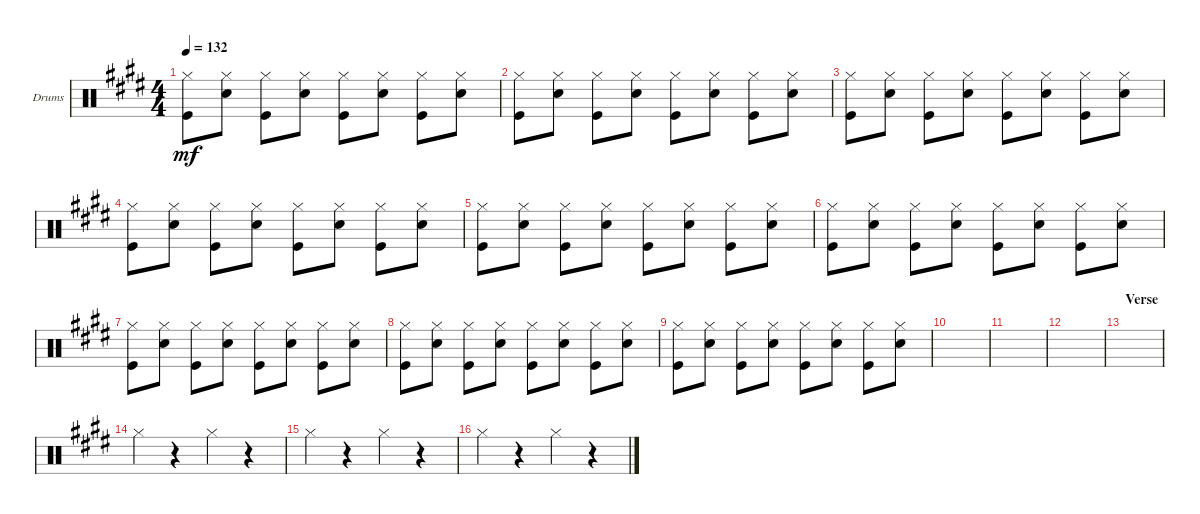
\defaultSystemsLayout 4
\bracketExtendMode groupsimilarinstruments
\firstSystemTrackNameOrientation horizontal
\otherSystemsTrackNameOrientation horizontal
\track ("Drumkit" "Drums") {instrument percussion}
\staff {score}
\articulation defaults
\ts (4 4)
\tempo 132
\clef neutral
\scale
0.333333
\ks c#minor
("Kick (hit)" "Hi-Hat (closed)").8{dy mf} ("Snare (hit) 2" "Hi-Hat (closed)").8 ("Kick (hit)" "Hi-Hat (closed)").8 ("Snare (hit) 2" "Hi-Hat (closed)").8 ("Kick (hit)" "Hi-Hat (closed)").8 ("Snare (hit) 2" "Hi-Hat (closed)").8 ("Kick (hit)" "Hi-Hat (closed)").8 ("Snare (hit) 2" "Hi-Hat (closed)").8 |
("Kick (hit)" "Hi-Hat (closed)").8 ("Snare (hit) 2" "Hi-Hat (closed)").8 ("Kick (hit)" "Hi-Hat (closed)").8 ("Snare (hit) 2" "Hi-Hat (closed)").8 ("Kick (hit)" "Hi-Hat (closed)").8 ("Snare (hit) 2" "Hi-Hat (closed)").8 ("Kick (hit)" "Hi-Hat (closed)").8 ("Snare (hit) 2" "Hi-Hat (closed)").8 |
("Kick (hit)" "Hi-Hat (closed)").8 ("Snare (hit) 2" "Hi-Hat (closed)").8 ("Kick (hit)" "Hi-Hat (closed)").8 ("Snare (hit) 2" "Hi-Hat (closed)").8 ("Kick (hit)" "Hi-Hat (closed)").8 ("Snare (hit) 2" "Hi-Hat (closed)").8 ("Kick (hit)" "Hi-Hat (closed)").8 ("Snare (hit) 2" "Hi-Hat (closed)").8 |
("Kick (hit)" "Hi-Hat (closed)").8 ("Snare (hit) 2" "Hi-Hat (closed)").8 ("Kick (hit)" "Hi-Hat (closed)").8 ("Snare (hit) 2" "Hi-Hat (closed)").8 ("Kick (hit)" "Hi-Hat (closed)").8 ("Snare (hit) 2" "Hi-Hat (closed)").8 ("Kick (hit)" "Hi-Hat (closed)").8 ("Snare (hit) 2" "Hi-Hat (closed)").8 |
("Kick (hit)" "Hi-Hat (closed)").8 ("Snare (hit) 2" "Hi-Hat (closed)").8 ("Kick (hit)" "Hi-Hat (closed)").8 ("Snare (hit) 2" "Hi-Hat (closed)").8 ("Kick (hit)" "Hi-Hat (closed)").8 ("Snare (hit) 2" "Hi-Hat (closed)").8 ("Kick (hit)" "Hi-Hat (closed)").8 ("Snare (hit) 2" "Hi-Hat (closed)").8 |
("Kick (hit)" "Hi-Hat (closed)").8 ("Snare (hit) 2" "Hi-Hat (closed)").8 ("Kick (hit)" "Hi-Hat (closed)").8 ("Snare (hit) 2" "Hi-Hat (closed)").8 ("Kick (hit)" "Hi-Hat (closed)").8 ("Snare (hit) 2" "Hi-Hat (closed)").8 ("Kick (hit)" "Hi-Hat (closed)").8 ("Snare (hit) 2" "Hi-Hat (closed)").8 |
("Kick (hit)" "Hi-Hat (closed)").8 ("Snare (hit) 2" "Hi-Hat (closed)").8 ("Kick (hit)" "Hi-Hat (closed)").8 ("Snare (hit) 2" "Hi-Hat (closed)").8 ("Kick (hit)" "Hi-Hat (closed)").8 ("Snare (hit) 2" "Hi-Hat (closed)").8 ("Kick (hit)" "Hi-Hat (closed)").8 ("Snare (hit) 2" "Hi-Hat (closed)").8 |
("Kick (hit)" "Hi-Hat (closed)").8 ("Snare (hit) 2" "Hi-Hat (closed)").8 ("Kick (hit)" "Hi-Hat (closed)").8 ("Snare (hit) 2" "Hi-Hat (closed)").8 ("Kick (hit)" "Hi-Hat (closed)").8 ("Snare (hit) 2" "Hi-Hat (closed)").8 ("Kick (hit)" "Hi-Hat (closed)").8 ("Snare (hit) 2" "Hi-Hat (closed)").8 |
("Kick (hit)" "Hi-Hat (closed)").8 ("Snare (hit) 2" "Hi-Hat (closed)").8 ("Kick (hit)" "Hi-Hat (closed)").8 ("Snare (hit) 2" "Hi-Hat (closed)").8 ("Kick (hit)" "Hi-Hat (closed)").8 ("Snare (hit) 2" "Hi-Hat (closed)").8 ("Kick (hit)" "Hi-Hat (closed)").8 ("Snare (hit) 2" "Hi-Hat (closed)").8 |
|
|
|
\section ("" "Verse")
|
"Hi-Hat (closed)".4 r.4 "Hi-Hat (closed)".4 r.4 |
"Hi-Hat (closed)".4 r.4 "Hi-Hat (closed)".4 r.4 |
"Hi-Hat (closed)".4 r.4 "Hi-Hat (closed)".4 r.4
